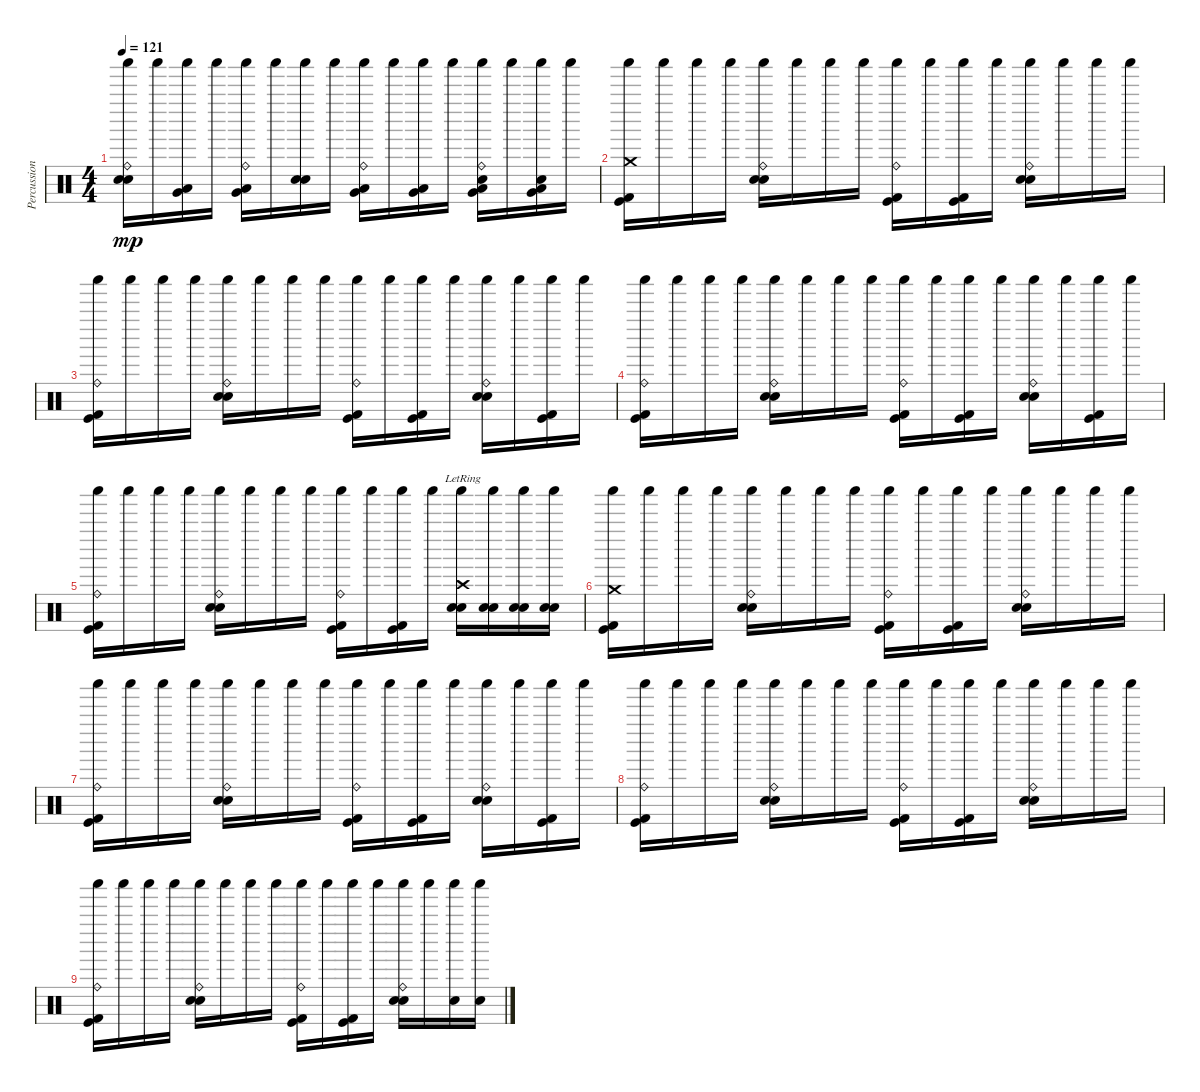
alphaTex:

\track ("Percussion" "Percussion") {instrument percussion}
\staff {score}
\articulation defaults
\ts (4 4)
\tempo 121
\clef neutral
\ks c
("Ride (bell)" "Metronome (bell)" "Electric Snare (hit)" "Shaker (hit)").16{dy mp} "Shaker (hit)".16 ("Low Tom (hit)" "Very Low Tom (hit)" "Shaker (hit)").16 "Shaker (hit)".16 ("Ride (bell)" "Very Low Tom (hit)" "Low Floor Tom (hit)" "Shaker (hit)").16 "Shaker (hit)".16 ("Electric Snare (hit)" "Metronome (bell)" "Shaker (hit)").16 "Shaker (hit)".16 ("Ride (bell)" "Low Tom (hit)" "Very Low Tom (hit)" "Shaker (hit)").16 "Shaker (hit)".16 ("Very Low Tom (hit)" "Low Floor Tom (hit)" "Shaker (hit)").16 "Shaker (hit)".16 ("Ride (bell)" "Very Low Tom (hit)" "Low Floor Tom (hit)" "Snare (hit)" "Shaker (hit)").16 "Shaker (hit)".16 ("Very Low Tom (hit)" "Low Floor Tom (hit)" "Snare (hit)" "Shaker (hit)").16 "Shaker (hit)".16 |
("Crash medium (hit)" "Kick (hit)" "Kick (hit) 2" "Shaker (hit)").16 "Shaker (hit)".16 "Shaker (hit)".16 "Shaker (hit)".16 ("Ride (bell)" "Electric Snare (hit)" "Metronome (bell)" "Shaker (hit)").16 "Shaker (hit)".16 "Shaker (hit)".16 "Shaker (hit)".16 ("Ride (bell)" "Kick (hit)" "Kick (hit) 2" "Shaker (hit)").16 "Shaker (hit)".16 ("Kick (hit)" "Kick (hit) 2" "Shaker (hit)").16 "Shaker (hit)".16 ("Ride (bell)" "Electric Snare (hit)" "Metronome (bell)" "Shaker (hit)").16 "Shaker (hit)".16 "Shaker (hit)".16 "Shaker (hit)".16 |
("Ride (bell)" "Kick (hit)" "Kick (hit) 2" "Shaker (hit)").16 "Shaker (hit)".16 "Shaker (hit)".16 "Shaker (hit)".16 ("Ride (bell)" "Electric Snare (hit)" "Metronome (bell)" "Shaker (hit)").16 "Shaker (hit)".16 "Shaker (hit)".16 "Shaker (hit)".16 ("Ride (bell)" "Kick (hit)" "Kick (hit) 2" "Shaker (hit)").16 "Shaker (hit)".16 ("Kick (hit)" "Kick (hit) 2" "Shaker (hit)").16 "Shaker (hit)".16 ("Ride (bell)" "Electric Snare (hit)" "Metronome (bell)" "Shaker (hit)").16 "Shaker (hit)".16 ("Kick (hit)" "Kick (hit) 2" "Shaker (hit)").16 "Shaker (hit)".16 |
("Ride (bell)" "Kick (hit)" "Kick (hit) 2" "Shaker (hit)").16 "Shaker (hit)".16 "Shaker (hit)".16 "Shaker (hit)".16 ("Ride (bell)" "Electric Snare (hit)" "Metronome (bell)" "Shaker (hit)").16 "Shaker (hit)".16 "Shaker (hit)".16 "Shaker (hit)".16 ("Ride (bell)" "Kick (hit)" "Kick (hit) 2" "Shaker (hit)").16 "Shaker (hit)".16 ("Kick (hit)" "Kick (hit) 2" "Shaker (hit)").16 "Shaker (hit)".16 ("Ride (bell)" "Electric Snare (hit)" "Metronome (bell)" "Shaker (hit)").16 "Shaker (hit)".16 ("Kick (hit)" "Kick (hit) 2" "Shaker (hit)").16 "Shaker (hit)".16 |
("Ride (bell)" "Kick (hit)" "Kick (hit) 2" "Shaker (hit)").16 "Shaker (hit)".16 "Shaker (hit)".16 "Shaker (hit)".16 ("Ride (bell)" "Electric Snare (hit)" "Metronome (bell)" "Shaker (hit)").16 "Shaker (hit)".16 "Shaker (hit)".16 "Shaker (hit)".16 ("Ride (bell)" "Kick (hit)" "Kick (hit) 2" "Shaker (hit)").16 "Shaker (hit)".16 ("Kick (hit)" "Kick (hit) 2" "Shaker (hit)").16 "Shaker (hit)".16 ("Crash high (hit)"{lr} "Electric Snare (hit)" "Metronome (bell)" "Shaker (hit)").16 ("Electric Snare (hit)" "Metronome (bell)" "Shaker (hit)").16 ("Electric Snare (hit)" "Metronome (bell)" "Shaker (hit)").16 ("Electric Snare (hit)" "Metronome (bell)" "Shaker (hit)").16 |
("Crash medium (hit)" "Kick (hit)" "Kick (hit) 2" "Shaker (hit)").16 "Shaker (hit)".16 "Shaker (hit)".16 "Shaker (hit)".16 ("Ride (bell)" "Electric Snare (hit)" "Metronome (bell)" "Shaker (hit)").16 "Shaker (hit)".16 "Shaker (hit)".16 "Shaker (hit)".16 ("Ride (bell)" "Kick (hit)" "Kick (hit) 2" "Shaker (hit)").16 "Shaker (hit)".16 ("Kick (hit)" "Kick (hit) 2" "Shaker (hit)").16 "Shaker (hit)".16 ("Ride (bell)" "Electric Snare (hit)" "Metronome (bell)" "Shaker (hit)").16 "Shaker (hit)".16 "Shaker (hit)".16 "Shaker (hit)".16 |
("Ride (bell)" "Kick (hit)" "Kick (hit) 2" "Shaker (hit)").16 "Shaker (hit)".16 "Shaker (hit)".16 "Shaker (hit)".16 ("Ride (bell)" "Electric Snare (hit)" "Metronome (bell)" "Shaker (hit)").16 "Shaker (hit)".16 "Shaker (hit)".16 "Shaker (hit)".16 ("Ride (bell)" "Kick (hit)" "Kick (hit) 2" "Shaker (hit)").16 "Shaker (hit)".16 ("Kick (hit)" "Kick (hit) 2" "Shaker (hit)").16 "Shaker (hit)".16 ("Ride (bell)" "Electric Snare (hit)" "Metronome (bell)" "Shaker (hit)").16 "Shaker (hit)".16 ("Kick (hit)" "Kick (hit) 2" "Shaker (hit)").16 "Shaker (hit)".16 |
("Ride (bell)" "Kick (hit)" "Kick (hit) 2" "Shaker (hit)").16 "Shaker (hit)".16 "Shaker (hit)".16 "Shaker (hit)".16 ("Ride (bell)" "Electric Snare (hit)" "Metronome (bell)" "Shaker (hit)").16 "Shaker (hit)".16 "Shaker (hit)".16 "Shaker (hit)".16 ("Ride (bell)" "Kick (hit)" "Kick (hit) 2" "Shaker (hit)").16 "Shaker (hit)".16 ("Kick (hit)" "Kick (hit) 2" "Shaker (hit)").16 "Shaker (hit)".16 ("Ride (bell)" "Electric Snare (hit)" "Metronome (bell)" "Shaker (hit)").16 "Shaker (hit)".16 "Shaker (hit)".16 "Shaker (hit)".16 |
("Ride (bell)" "Kick (hit)" "Kick (hit) 2" "Shaker (hit)").16 "Shaker (hit)".16 "Shaker (hit)".16 "Shaker (hit)".16 ("Ride (bell)" "Electric Snare (hit)" "Metronome (bell)" "Shaker (hit)").16 "Shaker (hit)".16 "Shaker (hit)".16 "Shaker (hit)".16 ("Ride (bell)" "Kick (hit)" "Kick (hit) 2" "Shaker (hit)").16 "Shaker (hit)".16 ("Kick (hit)" "Kick (hit) 2" "Shaker (hit)").16 "Shaker (hit)".16 ("Ride (bell)" "Electric Snare (hit)" "Metronome (bell)" "Shaker (hit)").16 "Shaker (hit)".16 ("Metronome (bell)" "Shaker (hit)").16 ("Metronome (bell)" "Shaker (hit)").16
